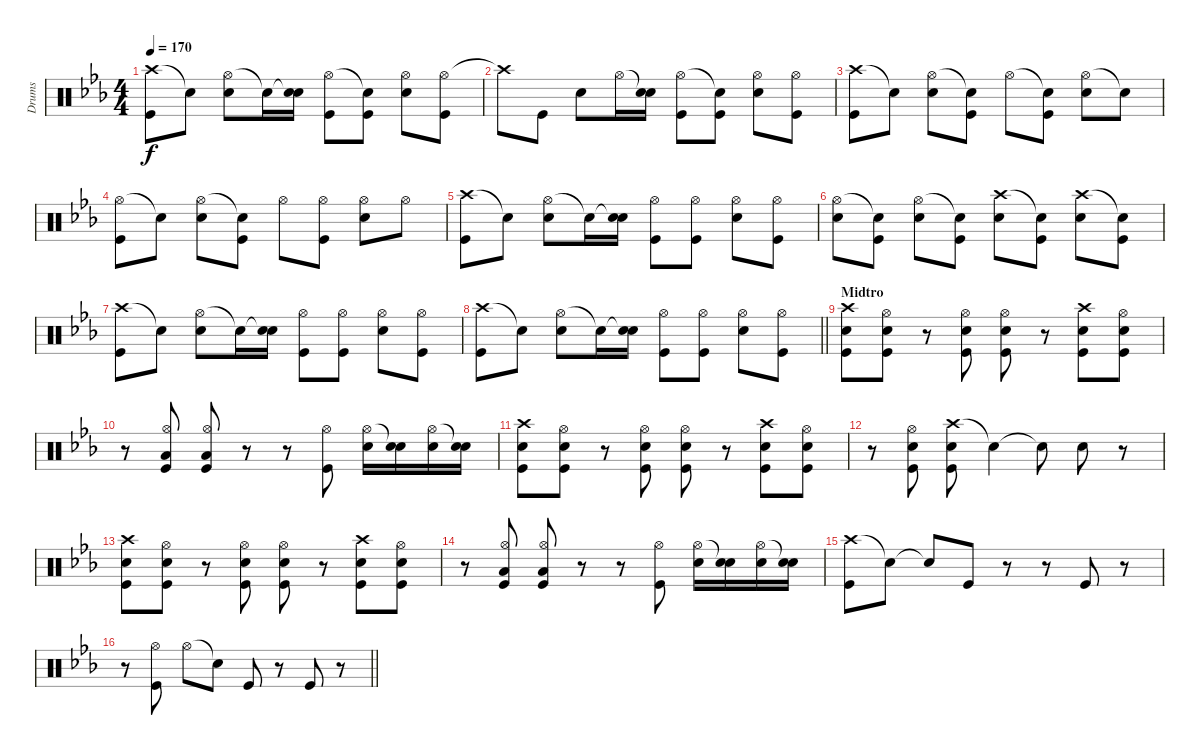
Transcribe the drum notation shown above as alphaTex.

\track ("Drums" "Drums") {solo instrument percussion}
\staff {score}
\articulation defaults
\ts (4 4)
\tempo 170
\clef neutral
\ks eb
("Crash high (hit)" "Kick (hit)").8{dy f} "Snare (hit)"{t}.8 ("Hi-Hat (open)" "Snare (hit) 2").8 "Snare (hit)"{t}.16 ("Snare (hit)"{t} "Snare (hit) 2").16 ("Hi-Hat (open)" "Kick (hit)").8 ("Snare (hit)"{t} "Kick (hit)").8 ("Hi-Hat (open)" "Snare (hit) 2").8 ("Hi-Hat (open)" "Kick (hit)").8 |
"Crash high (hit)"{t}.8 "Kick (hit)".8 "Snare (hit) 2".8 "Hi-Hat (open)".16 ("Snare (hit)"{t} "Snare (hit) 2").16 ("Hi-Hat (open)" "Kick (hit)").8 ("Snare (hit)"{t} "Kick (hit)").8 ("Hi-Hat (open)" "Snare (hit) 2").8 ("Hi-Hat (open)" "Kick (hit)").8 |
("Crash high (hit)" "Kick (hit)").8 "Snare (hit)"{t}.8 ("Hi-Hat (open)" "Snare (hit) 2").8 ("Snare (hit)"{t} "Kick (hit)").8 "Hi-Hat (open)".8 ("Snare (hit)"{t} "Kick (hit)").8 ("Hi-Hat (open)" "Snare (hit) 2").8 "Snare (hit)"{t}.8 |
("Hi-Hat (open)" "Kick (hit)").8 "Snare (hit)"{t}.8 ("Hi-Hat (open)" "Snare (hit) 2").8 ("Snare (hit)"{t} "Kick (hit)").8 "Hi-Hat (open)".8 ("Hi-Hat (open)" "Kick (hit)").8 ("Hi-Hat (open)" "Snare (hit) 2").8 "Hi-Hat (open)".8 |
("Crash high (hit)" "Kick (hit)").8 "Snare (hit)"{t}.8 ("Hi-Hat (open)" "Snare (hit) 2").8 "Snare (hit)"{t}.16 ("Snare (hit)"{t} "Snare (hit) 2").16 ("Hi-Hat (open)" "Kick (hit)").8 ("Hi-Hat (open)" "Kick (hit)").8 ("Hi-Hat (open)" "Snare (hit) 2").8 ("Hi-Hat (open)" "Kick (hit)").8 |
("Hi-Hat (open)" "Snare (hit) 2").8 ("Snare (hit)"{t} "Kick (hit)").8 ("Hi-Hat (open)" "Snare (hit) 2").8 ("Snare (hit)"{t} "Kick (hit)").8 ("Crash high (hit)" "Snare (hit) 2").8 ("Snare (hit)"{t} "Kick (hit)").8 ("Crash high (hit)" "Snare (hit) 2").8 ("Snare (hit)"{t} "Kick (hit)").8 |
("Crash high (hit)" "Kick (hit)").8 "Snare (hit)"{t}.8 ("Hi-Hat (open)" "Snare (hit) 2").8 "Snare (hit)"{t}.16 ("Snare (hit)"{t} "Snare (hit) 2").16 ("Hi-Hat (open)" "Kick (hit)").8 ("Hi-Hat (open)" "Kick (hit)").8 ("Hi-Hat (open)" "Snare (hit) 2").8 ("Hi-Hat (open)" "Kick (hit)").8 |
\barLineRight lightlight
("Crash high (hit)" "Kick (hit)").8 "Snare (hit)"{t}.8 ("Hi-Hat (open)" "Snare (hit) 2").8 "Snare (hit)"{t}.16 ("Snare (hit)"{t} "Snare (hit) 2").16 ("Hi-Hat (open)" "Kick (hit)").8 ("Hi-Hat (open)" "Kick (hit)").8 ("Hi-Hat (open)" "Snare (hit) 2").8 ("Hi-Hat (open)" "Kick (hit)").8 |
\section ("" "Midtro")
("Crash high (hit)" "Snare (hit) 2" "Kick (hit)").8 ("Hi-Hat (open)" "Snare (hit) 2" "Kick (hit)").8 r.8 ("Hi-Hat (open)" "Snare (hit) 2" "Kick (hit)").8 ("Hi-Hat (open)" "Snare (hit) 2" "Kick (hit)").8 r.8 ("Crash high (hit)" "Snare (hit) 2" "Kick (hit)").8 ("Hi-Hat (open)" "Snare (hit) 2" "Kick (hit)").8 |
r.8 ("Hi-Hat (open)" "Low Tom (hit)" "Kick (hit)").8 ("Hi-Hat (open)" "Low Tom (hit)" "Kick (hit)").8 r.8 r.8 ("Hi-Hat (open)" "Kick (hit)").8 ("Hi-Hat (open)" "Snare (hit) 2").16 ("Snare (hit)"{t} "Snare (hit) 2").16 ("Hi-Hat (open)" "Snare (hit) 2").16 ("Snare (hit)"{t} "Snare (hit) 2").16 |
("Crash high (hit)" "Snare (hit) 2" "Kick (hit)").8 ("Hi-Hat (open)" "Snare (hit) 2" "Kick (hit)").8 r.8 ("Hi-Hat (open)" "Snare (hit) 2" "Kick (hit)").8 ("Hi-Hat (open)" "Snare (hit) 2" "Kick (hit)").8 r.8 ("Crash high (hit)" "Snare (hit) 2" "Kick (hit)").8 ("Hi-Hat (open)" "Snare (hit) 2" "Kick (hit)").8 |
r.8 ("Hi-Hat (open)" "Snare (hit) 2" "Kick (hit)").8 ("Crash high (hit)" "Snare (hit) 2" "Kick (hit)").8 "Snare (hit)"{t}.4 "Snare (hit)"{t}.8 "Snare (hit) 2".8 r.8 |
("Crash high (hit)" "Snare (hit) 2" "Kick (hit)").8 ("Hi-Hat (open)" "Snare (hit) 2" "Kick (hit)").8 r.8 ("Hi-Hat (open)" "Snare (hit) 2" "Kick (hit)").8 ("Hi-Hat (open)" "Snare (hit) 2" "Kick (hit)").8 r.8 ("Crash high (hit)" "Snare (hit) 2" "Kick (hit)").8 ("Hi-Hat (open)" "Snare (hit) 2" "Kick (hit)").8 |
r.8 ("Hi-Hat (open)" "Low Tom (hit)" "Kick (hit)").8 ("Hi-Hat (open)" "Low Tom (hit)" "Kick (hit)").8 r.8 r.8 ("Hi-Hat (open)" "Kick (hit)").8 ("Hi-Hat (open)" "Snare (hit) 2").16 ("Snare (hit)"{t} "Snare (hit) 2").16 ("Hi-Hat (open)" "Snare (hit) 2").16 ("Snare (hit)"{t} "Snare (hit) 2").16 |
("Crash high (hit)" "Kick (hit)").8 "Snare (hit)"{t}.8 "Snare (hit)"{t}.8 "Kick (hit)".8 r.8 r.8 "Kick (hit)".8 r.8 |
\barLineRight lightlight
r.8 ("Hi-Hat (open)" "Kick (hit)").8 "Hi-Hat (open)".8 "Snare (hit)"{t}.8 "Kick (hit)".8 r.8 "Kick (hit)".8 r.8
